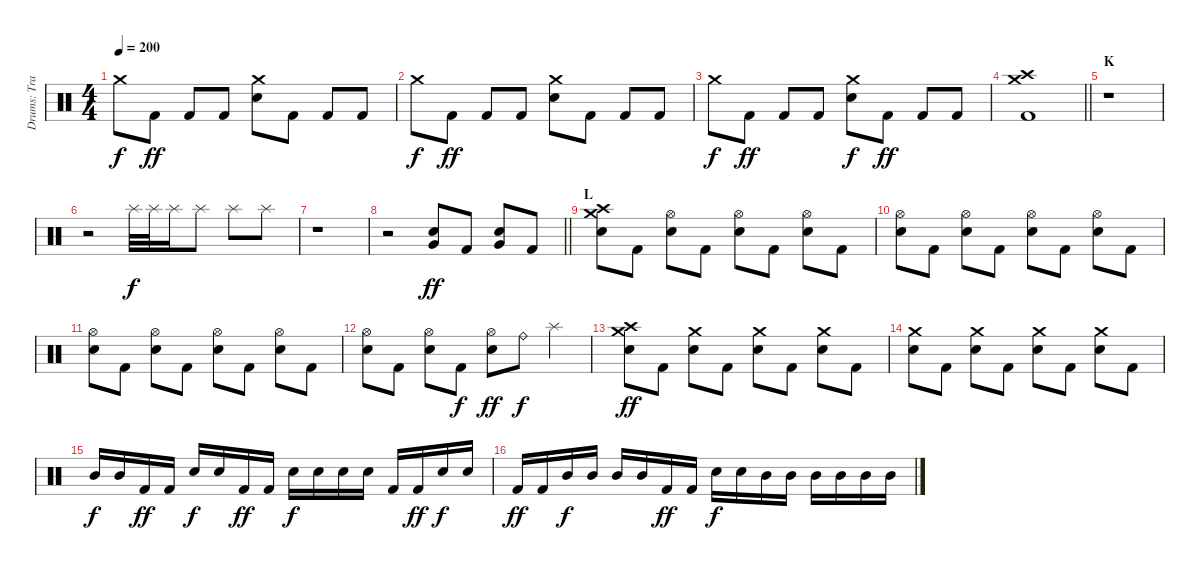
\track ("Drums: Travis Clarke" "Drums: Tra") {instrument percussion}
\staff {score}
\articulation defaults
\ts (4 4)
\tempo 200
\clef neutral
\ks c "Crash medium (hit)".8{dy f} "Kick (hit) 2".8{dy ff} "Kick (hit) 2".8 "Kick (hit) 2".8
("Snare (hit) 2" "Crash medium (hit)").8 "Kick (hit) 2".8 "Kick (hit) 2".8 "Kick (hit) 2".8 |
"Crash medium (hit)".8{dy f} "Kick (hit) 2".8{dy ff} "Kick (hit) 2".8 "Kick (hit) 2".8 ("Snare (hit) 2" "Crash medium (hit)").8 "Kick (hit) 2".8 "Kick (hit) 2".8 "Kick (hit) 2".8 |
"Crash medium (hit)".8{dy f} "Kick (hit) 2".8{dy ff} "Kick (hit) 2".8 "Kick (hit) 2".8 ("Snare (hit) 2" "Crash medium (hit)").8{dy f} "Kick (hit) 2".8{dy ff} "Kick (hit) 2".8 "Kick (hit) 2".8 |
\barLineRight lightlight
("Kick (hit) 2" "Crash high (hit)" "Crash medium (hit)").1 |
\section ("" "K")
r.1 |
r.2 "Splash (hit)".32{dy f} "Splash (hit)".32 "Splash (hit)".16 "Splash (hit)".8 "Splash (hit)".8 "Splash (hit)".8 |
r.1 |
\barLineRight lightlight
r.2 ("Snare (hit) 2" "Very Low Tom (hit)").8{dy ff} "Kick (hit) 2".8 ("Snare (hit) 2" "Very Low Tom (hit)").8 "Kick (hit) 2".8 |
\section ("" "L")
("Snare (hit) 2" "Crash high (hit)" "Crash medium (hit)").8 "Kick (hit) 2".8 ("Snare (hit) 2" "Hi-Hat (open)").8 "Kick (hit) 2".8 ("Snare (hit) 2" "Hi-Hat (open)").8 "Kick (hit) 2".8 ("Snare (hit) 2" "Hi-Hat (open)").8 "Kick (hit) 2".8 |
("Snare (hit) 2" "Hi-Hat (open)").8 "Kick (hit) 2".8 ("Snare (hit) 2" "Hi-Hat (open)").8 "Kick (hit) 2".8 ("Snare (hit) 2" "Hi-Hat (open)").8 "Kick (hit) 2".8 ("Snare (hit) 2" "Hi-Hat (open)").8 "Kick (hit) 2".8 |
("Snare (hit) 2" "Hi-Hat (open)").8 "Kick (hit) 2".8 ("Snare (hit) 2" "Hi-Hat (open)").8 "Kick (hit) 2".8 ("Snare (hit) 2" "Hi-Hat (open)").8 "Kick (hit) 2".8 ("Snare (hit) 2" "Hi-Hat (open)").8 "Kick (hit) 2".8 |
("Snare (hit) 2" "Hi-Hat (open)").8 "Kick (hit) 2".8 ("Snare (hit) 2" "Hi-Hat (open)").8 "Kick (hit) 2".8{dy f} ("Snare (hit) 2" "Hi-Hat (open)").8{dy ff} "Ride (bell)".8{dy f} "Splash (hit)".4 |
("Snare (hit) 2" "Crash high (hit)" "Crash medium (hit)").8{dy ff} "Kick (hit) 2".8 ("Snare (hit) 2" "Crash medium (hit)").8 "Kick (hit) 2".8 ("Snare (hit) 2" "Crash medium (hit)").8 "Kick (hit) 2".8 ("Snare (hit) 2" "Crash medium (hit)").8 "Kick (hit) 2".8 |
("Snare (hit) 2" "Crash medium (hit)").8 "Kick (hit) 2".8 ("Snare (hit) 2" "Crash medium (hit)").8 "Kick (hit) 2".8 ("Snare (hit) 2" "Crash medium (hit)").8 "Kick (hit) 2".8 ("Snare (hit) 2" "Crash medium (hit)").8 "Kick (hit) 2".8 |
"Mid Tom (hit)".16{dy f} "Mid Tom (hit)".16 "Kick (hit) 2".16{dy ff} "Kick (hit) 2".16 "Snare (hit) 2".16{dy f} "Snare (hit) 2".16 "Kick (hit) 2".16{dy ff} "Kick (hit) 2".16 "Snare (hit) 2".16{dy f} "Snare (hit) 2".16 "Snare (hit) 2".16 "Snare (hit) 2".16 "Kick (hit) 2".16 "Kick (hit) 2".16{dy ff} "Snare (hit) 2".16{dy f} "Snare (hit) 2".16 |
"Kick (hit) 2".16{dy ff} "Kick (hit) 2".16 "Mid Tom (hit)".16{dy f} "Mid Tom (hit)".16 "Mid Tom (hit)".16 "Mid Tom (hit)".16 "Kick (hit) 2".16{dy ff} "Kick (hit) 2".16 "Snare (hit) 2".16{dy f} "Snare (hit) 2".16 "Mid Tom (hit)".16 "Mid Tom (hit)".16 "Mid Tom (hit)".16 "Mid Tom (hit)".16 "Mid Tom (hit)".16 "Mid Tom (hit)".16
